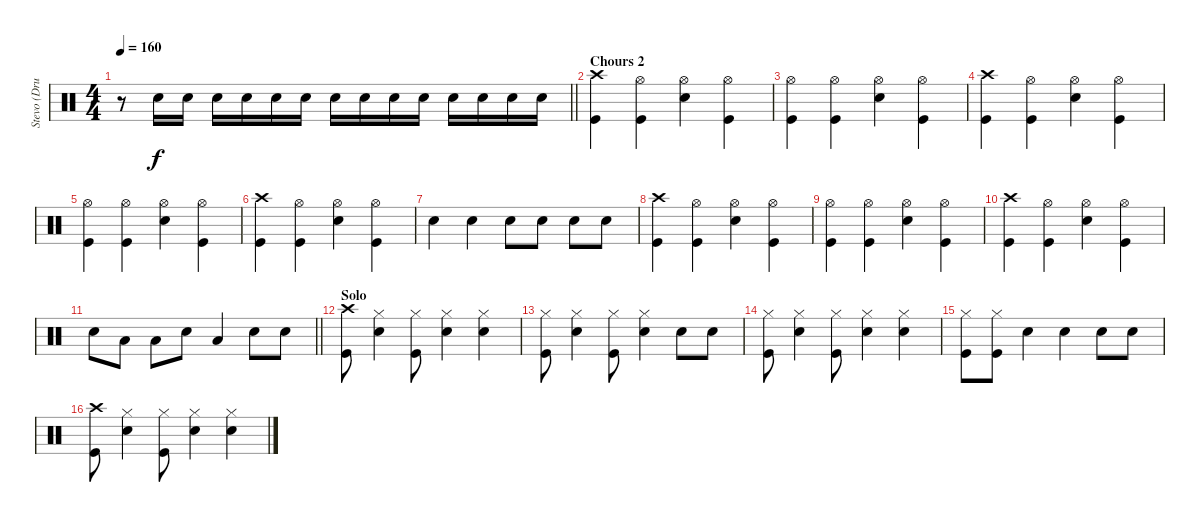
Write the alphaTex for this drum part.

\track ("Stevo (Drums)" "Stevo (Dru") {instrument percussion}
\staff {score}
\articulation defaults
\ts (4 4)
\tempo 160
\clef neutral
\barLineRight lightlight
\ks c
r.8{dy f} "Electric Snare (hit)".16 "Electric Snare (hit)".16 "Electric Snare (hit)".16 "Electric Snare (hit)".16 "Electric Snare (hit)".16 "Electric Snare (hit)".16 "Electric Snare (hit)".16 "Electric Snare (hit)".16 "Electric Snare (hit)".16 "Electric Snare (hit)".16 "Electric Snare (hit)".16 "Electric Snare (hit)".16 "Electric Snare (hit)".16 "Electric Snare (hit)".16 |
\section ("" "Chours 2")
("Crash high (hit)" "Kick (hit)").4 ("Hi-Hat (open)" "Kick (hit)").4 ("Hi-Hat (open)" "Electric Snare (hit)").4 ("Hi-Hat (open)" "Kick (hit)").4 |
("Hi-Hat (open)" "Kick (hit)").4 ("Hi-Hat (open)" "Kick (hit)").4 ("Hi-Hat (open)" "Electric Snare (hit)").4 ("Hi-Hat (open)" "Kick (hit)").4 |
("Crash high (hit)" "Kick (hit)").4 ("Hi-Hat (open)" "Kick (hit)").4 ("Hi-Hat (open)" "Electric Snare (hit)").4 ("Hi-Hat (open)" "Kick (hit)").4 |
("Hi-Hat (open)" "Kick (hit)").4 ("Hi-Hat (open)" "Kick (hit)").4 ("Hi-Hat (open)" "Electric Snare (hit)").4 ("Hi-Hat (open)" "Kick (hit)").4 |
("Crash high (hit)" "Kick (hit)").4 ("Hi-Hat (open)" "Kick (hit)").4 ("Hi-Hat (open)" "Electric Snare (hit)").4 ("Hi-Hat (open)" "Kick (hit)").4 |
"Electric Snare (hit)".4 "Electric Snare (hit)".4 "Electric Snare (hit)".8 "Electric Snare (hit)".8 "Electric Snare (hit)".8 "Electric Snare (hit)".8 |
("Crash high (hit)" "Kick (hit)").4 ("Hi-Hat (open)" "Kick (hit)").4 ("Hi-Hat (open)" "Electric Snare (hit)").4 ("Hi-Hat (open)" "Kick (hit)").4 |
("Hi-Hat (open)" "Kick (hit)").4 ("Hi-Hat (open)" "Kick (hit)").4 ("Hi-Hat (open)" "Electric Snare (hit)").4 ("Hi-Hat (open)" "Kick (hit)").4 |
("Crash high (hit)" "Kick (hit)").4 ("Hi-Hat (open)" "Kick (hit)").4 ("Hi-Hat (open)" "Electric Snare (hit)").4 ("Hi-Hat (open)" "Kick (hit)").4 |
\barLineRight lightlight "Electric Snare (hit)".8 "Low Tom (hit)".8 "Low Tom (hit)".8 "Electric Snare (hit)".8 "Low Tom (hit)".4 "Electric Snare (hit)".8 "Electric Snare (hit)".8
|
\section ("" "Solo")
("Crash high (hit)" "Kick (hit)").8 ("Hi-Hat (closed)" "Electric Snare (hit)").4 ("Hi-Hat (closed)" "Kick (hit)").8 ("Hi-Hat (closed)" "Electric Snare (hit)").4 ("Hi-Hat (closed)" "Electric Snare (hit)").4 |
("Hi-Hat (closed)" "Kick (hit)").8 ("Hi-Hat (closed)" "Electric Snare (hit)").4 ("Hi-Hat (closed)" "Kick (hit)").8 ("Hi-Hat (closed)" "Electric Snare (hit)").4 "Electric Snare (hit)".8 "Electric Snare (hit)".8 |
("Hi-Hat (closed)" "Kick (hit)").8 ("Hi-Hat (closed)" "Electric Snare (hit)").4 ("Hi-Hat (closed)" "Kick (hit)").8 ("Hi-Hat (closed)" "Electric Snare (hit)").4 ("Hi-Hat (closed)" "Electric Snare (hit)").4 |
("Hi-Hat (closed)" "Kick (hit)").8 ("Hi-Hat (closed)" "Kick (hit)").8 "Electric Snare (hit)".4 "Electric Snare (hit)".4 "Electric Snare (hit)".8 "Electric Snare (hit)".8 |
("Crash high (hit)" "Kick (hit)").8 ("Hi-Hat (closed)" "Electric Snare (hit)").4 ("Hi-Hat (closed)" "Kick (hit)").8 ("Hi-Hat (closed)" "Electric Snare (hit)").4 ("Hi-Hat (closed)" "Electric Snare (hit)").4
